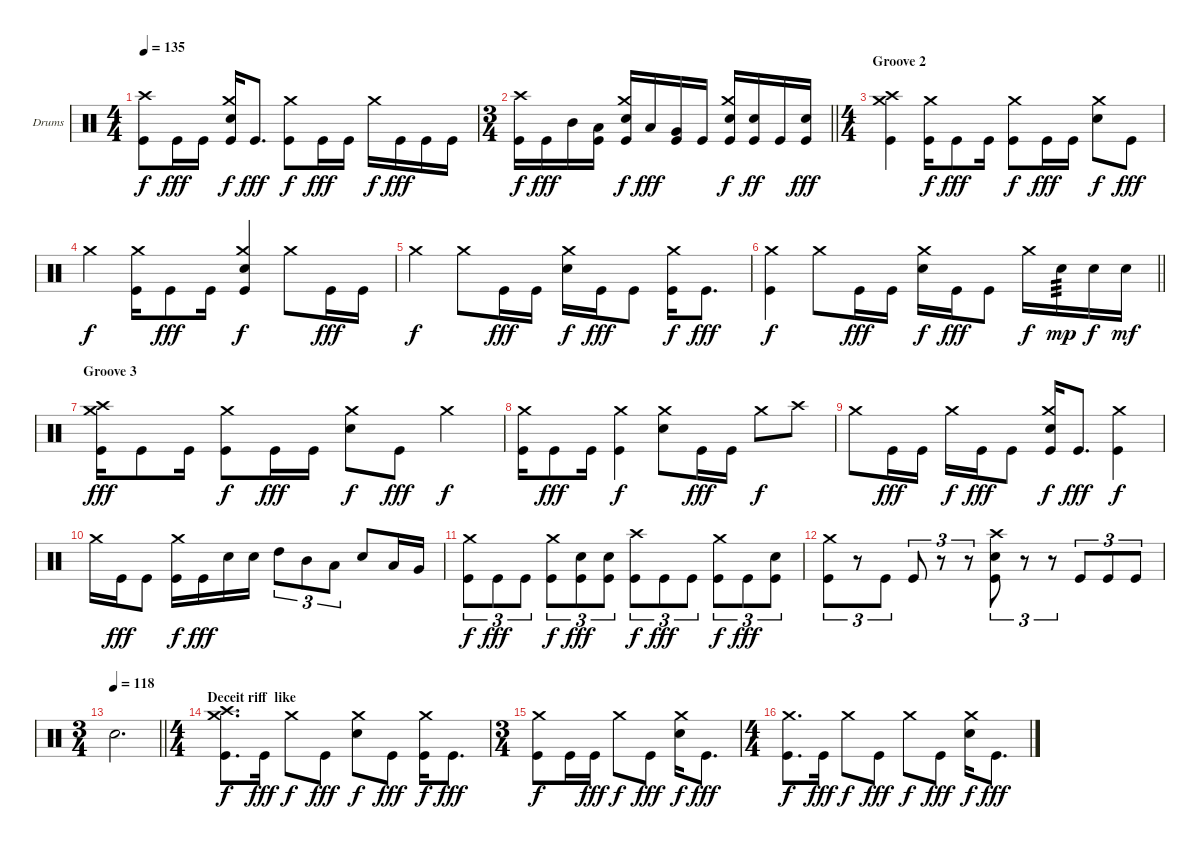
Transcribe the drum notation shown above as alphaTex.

\bracketExtendMode groupsimilarinstruments
\firstSystemTrackNameOrientation horizontal
\otherSystemsTrackNameOrientation horizontal
\track ("Drumkit" "Drums") {instrument percussion}
\staff {score}
\articulation defaults
\ts (4 4)
\beaming (8 2 2 2 2)
\tempo 135
\clef neutral
\ks c
("Crash high (hit)" "Kick (hit)").8{dy f} "Kick (hit)".16{dy fff} "Kick (hit)".16 ("Crash medium (hit)" "Snare (hit) 2" "Kick (hit)").16{dy f} "Kick (hit)".8{d dy fff} ("Crash medium (hit)" "Kick (hit)").8{dy f} "Kick (hit)".16{dy fff} "Kick (hit)".16 "Crash medium (hit)".16{dy f} "Kick (hit)".16{dy fff} "Kick (hit)".16 "Kick (hit)".16 |
\ts (3 4)
\beaming (8 2 2 2)
\barLineRight lightlight
("Crash high (hit)" "Kick (hit)").16{dy f} "Kick (hit)".16{dy fff} "Mid Tom (hit)".16 ("Low Tom (hit)" "Kick (hit)").16 ("Crash medium (hit)" "Snare (hit) 2" "Kick (hit)").16{dy f} "Low Tom (hit)".16{dy fff} ("Very Low Tom (hit)" "Kick (hit)").16 "Kick (hit)".16 ("Crash medium (hit)" "Snare (hit) 2" "Kick (hit)").16{dy f} ("Snare (hit) 2" "Kick (hit)").16{dy ff} "Kick (hit)".16 ("Snare (hit) 2" "Kick (hit)").16{dy fff} |
\ts (4 4)
\beaming (8 2 2 2 2)
\section ("" "Groove 2")
("Crash medium (hit)" "Crash high (hit)" "Kick (hit)").4 ("Crash medium (hit)" "Kick (hit)").16{dy f} "Kick (hit)".8{dy fff} "Kick (hit)".16 ("Crash medium (hit)" "Kick (hit)").8{dy f} "Kick (hit)".16{dy fff} "Kick (hit)".16 ("Crash medium (hit)" "Snare (hit) 2").8{dy f} "Kick (hit)".8{dy fff} |
"Crash medium (hit)".4{dy f} ("Crash medium (hit)" "Kick (hit)").16 "Kick (hit)".8{dy fff} "Kick (hit)".16 ("Crash medium (hit)" "Snare (hit) 2" "Kick (hit)").4{dy f} "Crash medium (hit)".8 "Kick (hit)".16{dy fff} "Kick (hit)".16 |
"Crash medium (hit)".4{dy f} "Crash medium (hit)".8 "Kick (hit)".16{dy fff} "Kick (hit)".16 ("Crash medium (hit)" "Snare (hit) 2").16{dy f} "Kick (hit)".16{dy fff} "Kick (hit)".8 ("Crash medium (hit)" "Kick (hit)").16{dy f} "Kick (hit)".8{d dy fff} |
\barLineRight lightlight
("Crash medium (hit)" "Kick (hit)").4{dy f} "Crash medium (hit)".8 "Kick (hit)".16{dy fff} "Kick (hit)".16 ("Crash medium (hit)" "Snare (hit) 2").16{dy f} "Kick (hit)".16{dy fff} "Kick (hit)".8 "Crash medium (hit)".16{dy f} "Snare (hit) 2".16{tp 3 dy mp} "Snare (hit) 2".16{dy f} "Snare (hit) 2".16{dy mf} |
\section ("" "Groove 3")
("Crash medium (hit)" "Crash high (hit)" "Kick (hit)").16{dy fff} "Kick (hit)".8 "Kick (hit)".16 ("Crash medium (hit)" "Kick (hit)").8{dy f} "Kick (hit)".16{dy fff} "Kick (hit)".16 ("Crash medium (hit)" "Snare (hit) 2").8{dy f} "Kick (hit)".8{dy fff} "Crash medium (hit)".4{dy f} |
("Crash medium (hit)" "Kick (hit)").16 "Kick (hit)".8{dy fff} "Kick (hit)".16 ("Crash medium (hit)" "Kick (hit)").4{dy f} ("Crash medium (hit)" "Snare (hit) 2").8 "Kick (hit)".16{dy fff} "Kick (hit)".16 "Crash medium (hit)".8{dy f} "Crash high (hit)".8 |
"Crash medium (hit)".8 "Kick (hit)".16{dy fff} "Kick (hit)".16 "Crash medium (hit)".16{dy f} "Kick (hit)".16{dy fff} "Kick (hit)".8 ("Crash medium (hit)" "Snare (hit) 2" "Kick (hit)").16{dy f} "Kick (hit)".8{d dy fff} ("Crash medium (hit)" "Kick (hit)").4{dy f} |
"Crash medium (hit)".16 "Kick (hit)".16{dy fff} "Kick (hit)".8 ("Crash medium (hit)" "Kick (hit)").16{dy f} "Kick (hit)".16{dy fff} "Snare (hit) 2".16 "Snare (hit) 2".16 "High Tom (hit)".8{tu (3 2)} "Mid Tom (hit)".8{tu (3 2)} "Low Tom (hit)".8{tu (3 2)} "Snare (hit) 2".8 "Low Tom (hit)".16 "Very Low Tom (hit)".16 |
("Crash medium (hit)" "Kick (hit)").8{tu (3 2) dy f} "Kick (hit)".8{tu (3 2) dy fff} "Kick (hit)".8{tu (3 2)} ("Crash medium (hit)" "Kick (hit)").8{tu (3 2) dy f} ("Snare (hit) 2" "Kick (hit)").8{tu (3 2) dy fff} ("Snare (hit) 2" "Kick (hit)").8{tu (3 2)} ("Crash high (hit)" "Kick (hit)").8{tu (3 2) dy f} "Kick (hit)".8{tu (3 2) dy fff} "Kick (hit)".8{tu (3 2)} ("Crash medium (hit)" "Kick (hit)").8{tu (3 2) dy f} "Kick (hit)".8{tu (3 2) dy fff} ("Snare (hit) 2" "Kick (hit)").8{tu (3 2)} |
("Crash medium (hit)" "Kick (hit)").8{tu (3 2)} r.8{tu (3 2)} "Kick (hit)".8{tu (3 2)} "Kick (hit)".8{tu (3 2)} r.8{tu (3 2)} r.8{tu (3 2)} ("Crash high (hit)" "Snare (hit) 2" "Kick (hit)").8{tu (3 2)} r.8{tu (3 2)} r.8{tu (3 2)} "Kick (hit)".8{tu (3 2)} "Kick (hit)".8{tu (3 2)} "Kick (hit)".8{tu (3 2)} |
\ts (3 4)
\beaming (8 2 2 2)
\tempo 118
\barLineRight lightlight "Snare (hit) 2".2{d}
|
\ts (4 4)
\beaming (8 2 2 2 2)
\section ("" "Deceit riff  like")
("Crash medium (hit)" "Crash high (hit)" "Kick (hit)").8{d dy f} "Kick (hit)".16{dy fff} "Crash medium (hit)".8{dy f} "Kick (hit)".8{dy fff} ("Crash medium (hit)" "Snare (hit) 2").8{dy f} "Kick (hit)".8{dy fff} ("Crash medium (hit)" "Kick (hit)").16{dy f} "Kick (hit)".8{d dy fff} |
\ts (3 4)
\beaming (8 2 2 2)
("Crash medium (hit)" "Kick (hit)").8{dy f} "Kick (hit)".16 "Kick (hit)".16{dy fff} "Crash medium (hit)".8{dy f} "Kick (hit)".8{dy fff} ("Crash medium (hit)" "Snare (hit) 2").16{dy f} "Kick (hit)".8{d dy fff} |
\ts (4 4)
\beaming (8 2 2 2 2)
("Crash medium (hit)" "Kick (hit)").8{d dy f} "Kick (hit)".16{dy fff} "Crash medium (hit)".8{dy f} "Kick (hit)".8{dy fff} "Crash medium (hit)".8{dy f} "Kick (hit)".8{dy fff} ("Crash medium (hit)" "Snare (hit) 2").16{dy f} "Kick (hit)".8{d dy fff}
